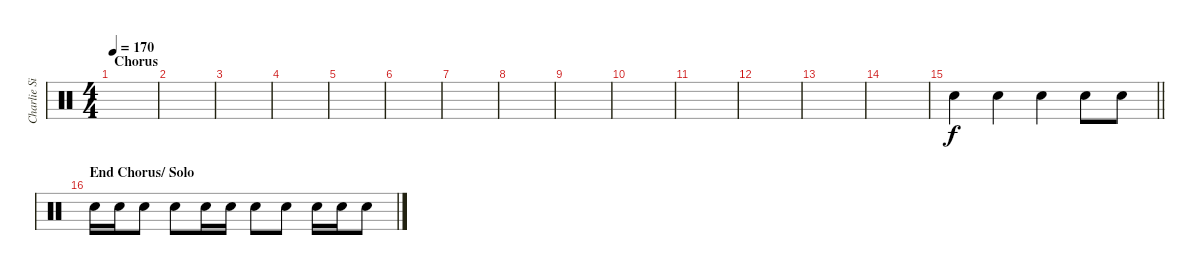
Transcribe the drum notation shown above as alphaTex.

\track ("Charlie Simpson (Drums)" "Charlie Si") {instrument percussion}
\staff {score}
\articulation defaults
\ts (4 4)
\section ("" "Chorus")
\tempo 170
\clef neutral
\ks c
|
|
|
|
|
|
|
|
|
|
|
|
|
|
\barLineRight lightlight "Snare (hit) 2".4 "Snare (hit) 2".4 "Snare (hit) 2".4 "Snare (hit) 2".8 "Snare (hit) 2".8
|
\section ("" "End Chorus/ Solo")
"Snare (hit) 2".16 "Snare (hit) 2".16 "Snare (hit) 2".8 "Snare (hit) 2".8 "Snare (hit) 2".16 "Snare (hit) 2".16 "Snare (hit) 2".8 "Snare (hit) 2".8 "Snare (hit) 2".16 "Snare (hit) 2".16 "Snare (hit) 2".8
